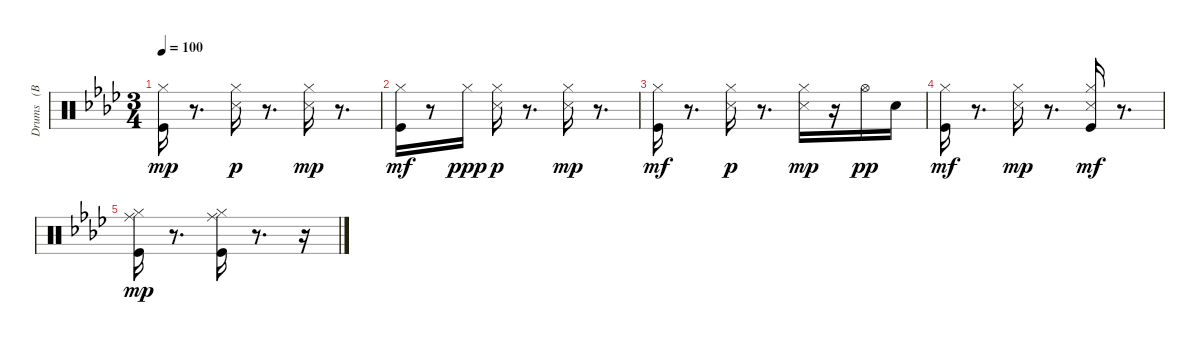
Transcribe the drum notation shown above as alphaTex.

\track ("Drums   (BB)" "Drums   (B") {instrument percussion}
\staff {score}
\articulation defaults
\ts (3 4)
\tempo 100
\clef neutral
\ks fminor
("Kick (hit)" "Hi-Hat (closed)").16{dy mp} r.8{d} ("Hi-Hat (closed)" "Snare (side stick) 3").16{dy p} r.8{d} ("Hi-Hat (closed)" "Snare (side stick) 3").16{dy mp} r.8{d} |
("Kick (hit)" "Hi-Hat (closed)").16{dy mf} r.8 "Hi-Hat (closed)".16{dy ppp} ("Hi-Hat (closed)" "Snare (side stick) 3").16{dy p} r.8{d} ("Hi-Hat (closed)" "Snare (side stick) 3").16{dy mp} r.8{d} |
("Kick (hit)" "Hi-Hat (closed)").16{dy mf} r.8{d} ("Hi-Hat (closed)" "Snare (side stick) 3").16{dy p} r.8{d} ("Hi-Hat (closed)" "Snare (side stick) 3").16{dy mp} r.16 "Hi-Hat (open)".16{dy pp} "Snare (hit) 2".16 |
("Kick (hit)" "Hi-Hat (closed)").16{dy mf} r.8{d} ("Hi-Hat (closed)" "Snare (side stick) 3").16{dy mp} r.8{d} ("Kick (hit)" "Hi-Hat (closed)" "Snare (side stick) 3").16{dy mf} r.8{d} |
("Kick (hit)" "Hi-Hat (closed)" "Ride (middle)").16{dy mp} r.8{d} ("Kick (hit)" "Hi-Hat (closed)" "Ride (middle)").16 r.8{d} r.16
